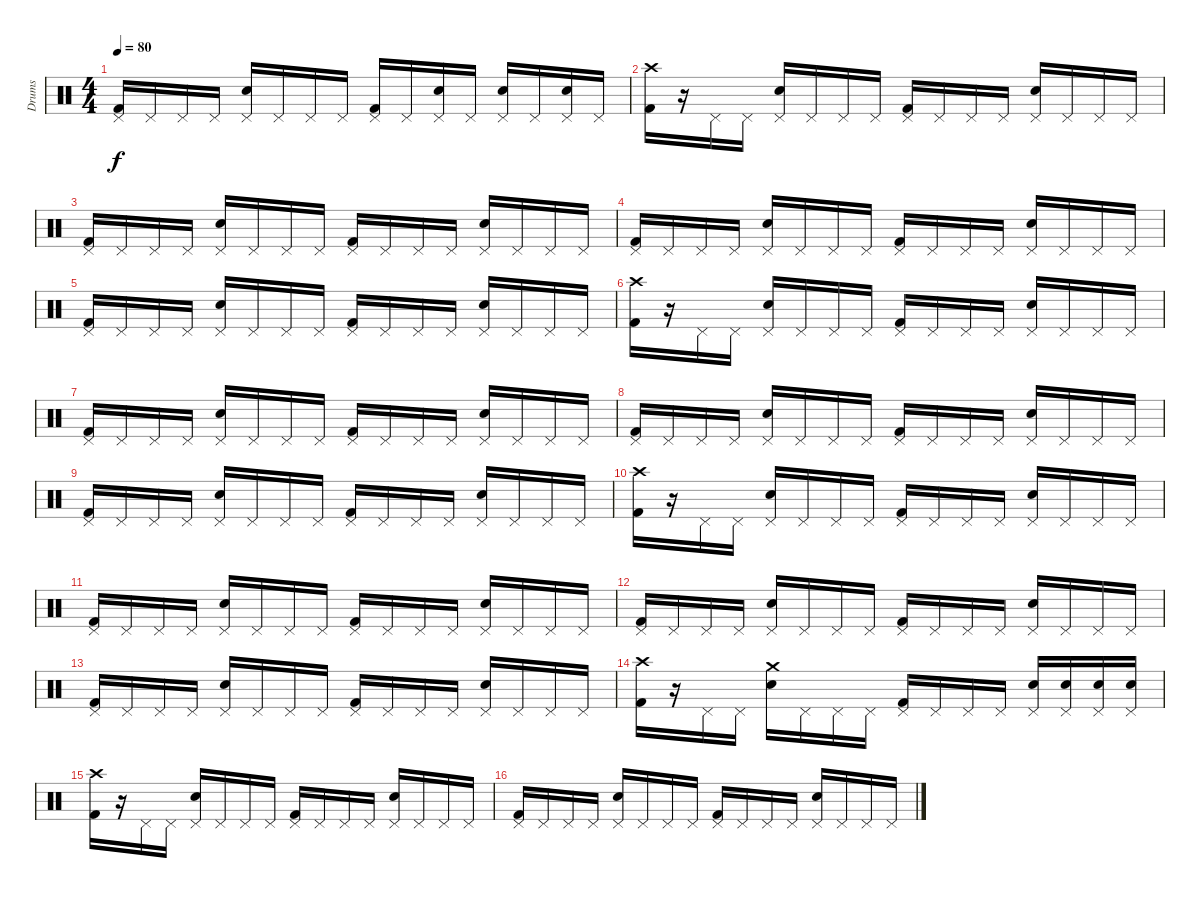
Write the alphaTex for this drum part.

\track ("Drums" "Drums") {instrument percussion}
\staff {score}
\articulation defaults
\ts (4 4)
\tempo 80
\clef neutral
\ks c
("Pedal Hi-Hat (hit)" "Kick (hit) 2").16{dy f} "Pedal Hi-Hat (hit)".16 "Pedal Hi-Hat (hit)".16 "Pedal Hi-Hat (hit)".16 ("Pedal Hi-Hat (hit)" "Snare (hit) 2").16 "Pedal Hi-Hat (hit)".16 "Pedal Hi-Hat (hit)".16 "Pedal Hi-Hat (hit)".16 ("Pedal Hi-Hat (hit)" "Kick (hit) 2").16 "Pedal Hi-Hat (hit)".16 ("Pedal Hi-Hat (hit)" "Snare (hit) 2").16 "Pedal Hi-Hat (hit)".16 ("Pedal Hi-Hat (hit)" "Snare (hit) 2").16 "Pedal Hi-Hat (hit)".16 ("Pedal Hi-Hat (hit)" "Snare (hit) 2").16 "Pedal Hi-Hat (hit)".16 |
("Crash high (hit)" "Kick (hit) 2").16 r.16 "Pedal Hi-Hat (hit)".16 "Pedal Hi-Hat (hit)".16 ("Pedal Hi-Hat (hit)" "Snare (hit) 2").16 "Pedal Hi-Hat (hit)".16 "Pedal Hi-Hat (hit)".16 "Pedal Hi-Hat (hit)".16 ("Pedal Hi-Hat (hit)" "Kick (hit) 2").16 "Pedal Hi-Hat (hit)".16 "Pedal Hi-Hat (hit)".16 "Pedal Hi-Hat (hit)".16 ("Pedal Hi-Hat (hit)" "Snare (hit) 2").16 "Pedal Hi-Hat (hit)".16 "Pedal Hi-Hat (hit)".16 "Pedal Hi-Hat (hit)".16 |
("Pedal Hi-Hat (hit)" "Kick (hit) 2").16 "Pedal Hi-Hat (hit)".16 "Pedal Hi-Hat (hit)".16 "Pedal Hi-Hat (hit)".16 ("Pedal Hi-Hat (hit)" "Snare (hit) 2").16 "Pedal Hi-Hat (hit)".16 "Pedal Hi-Hat (hit)".16 "Pedal Hi-Hat (hit)".16 ("Pedal Hi-Hat (hit)" "Kick (hit) 2").16 "Pedal Hi-Hat (hit)".16 "Pedal Hi-Hat (hit)".16 "Pedal Hi-Hat (hit)".16 ("Pedal Hi-Hat (hit)" "Snare (hit) 2").16 "Pedal Hi-Hat (hit)".16 "Pedal Hi-Hat (hit)".16 "Pedal Hi-Hat (hit)".16 |
("Pedal Hi-Hat (hit)" "Kick (hit) 2").16 "Pedal Hi-Hat (hit)".16 "Pedal Hi-Hat (hit)".16 "Pedal Hi-Hat (hit)".16 ("Pedal Hi-Hat (hit)" "Snare (hit) 2").16 "Pedal Hi-Hat (hit)".16 "Pedal Hi-Hat (hit)".16 "Pedal Hi-Hat (hit)".16 ("Pedal Hi-Hat (hit)" "Kick (hit) 2").16 "Pedal Hi-Hat (hit)".16 "Pedal Hi-Hat (hit)".16 "Pedal Hi-Hat (hit)".16 ("Pedal Hi-Hat (hit)" "Snare (hit) 2").16 "Pedal Hi-Hat (hit)".16 "Pedal Hi-Hat (hit)".16 "Pedal Hi-Hat (hit)".16 |
("Pedal Hi-Hat (hit)" "Kick (hit) 2").16 "Pedal Hi-Hat (hit)".16 "Pedal Hi-Hat (hit)".16 "Pedal Hi-Hat (hit)".16 ("Pedal Hi-Hat (hit)" "Snare (hit) 2").16 "Pedal Hi-Hat (hit)".16 "Pedal Hi-Hat (hit)".16 "Pedal Hi-Hat (hit)".16 ("Pedal Hi-Hat (hit)" "Kick (hit) 2").16 "Pedal Hi-Hat (hit)".16 "Pedal Hi-Hat (hit)".16 "Pedal Hi-Hat (hit)".16 ("Pedal Hi-Hat (hit)" "Snare (hit) 2").16 "Pedal Hi-Hat (hit)".16 "Pedal Hi-Hat (hit)".16 "Pedal Hi-Hat (hit)".16 |
("Crash high (hit)" "Kick (hit) 2").16 r.16 "Pedal Hi-Hat (hit)".16 "Pedal Hi-Hat (hit)".16 ("Pedal Hi-Hat (hit)" "Snare (hit) 2").16 "Pedal Hi-Hat (hit)".16 "Pedal Hi-Hat (hit)".16 "Pedal Hi-Hat (hit)".16 ("Pedal Hi-Hat (hit)" "Kick (hit) 2").16 "Pedal Hi-Hat (hit)".16 "Pedal Hi-Hat (hit)".16 "Pedal Hi-Hat (hit)".16 ("Pedal Hi-Hat (hit)" "Snare (hit) 2").16 "Pedal Hi-Hat (hit)".16 "Pedal Hi-Hat (hit)".16 "Pedal Hi-Hat (hit)".16 |
("Pedal Hi-Hat (hit)" "Kick (hit) 2").16 "Pedal Hi-Hat (hit)".16 "Pedal Hi-Hat (hit)".16 "Pedal Hi-Hat (hit)".16 ("Pedal Hi-Hat (hit)" "Snare (hit) 2").16 "Pedal Hi-Hat (hit)".16 "Pedal Hi-Hat (hit)".16 "Pedal Hi-Hat (hit)".16 ("Pedal Hi-Hat (hit)" "Kick (hit) 2").16 "Pedal Hi-Hat (hit)".16 "Pedal Hi-Hat (hit)".16 "Pedal Hi-Hat (hit)".16 ("Pedal Hi-Hat (hit)" "Snare (hit) 2").16 "Pedal Hi-Hat (hit)".16 "Pedal Hi-Hat (hit)".16 "Pedal Hi-Hat (hit)".16 |
("Pedal Hi-Hat (hit)" "Kick (hit) 2").16 "Pedal Hi-Hat (hit)".16 "Pedal Hi-Hat (hit)".16 "Pedal Hi-Hat (hit)".16 ("Pedal Hi-Hat (hit)" "Snare (hit) 2").16 "Pedal Hi-Hat (hit)".16 "Pedal Hi-Hat (hit)".16 "Pedal Hi-Hat (hit)".16 ("Pedal Hi-Hat (hit)" "Kick (hit) 2").16 "Pedal Hi-Hat (hit)".16 "Pedal Hi-Hat (hit)".16 "Pedal Hi-Hat (hit)".16 ("Pedal Hi-Hat (hit)" "Snare (hit) 2").16 "Pedal Hi-Hat (hit)".16 "Pedal Hi-Hat (hit)".16 "Pedal Hi-Hat (hit)".16 |
("Pedal Hi-Hat (hit)" "Kick (hit) 2").16 "Pedal Hi-Hat (hit)".16 "Pedal Hi-Hat (hit)".16 "Pedal Hi-Hat (hit)".16 ("Pedal Hi-Hat (hit)" "Snare (hit) 2").16 "Pedal Hi-Hat (hit)".16 "Pedal Hi-Hat (hit)".16 "Pedal Hi-Hat (hit)".16 ("Pedal Hi-Hat (hit)" "Kick (hit) 2").16 "Pedal Hi-Hat (hit)".16 "Pedal Hi-Hat (hit)".16 "Pedal Hi-Hat (hit)".16 ("Pedal Hi-Hat (hit)" "Snare (hit) 2").16 "Pedal Hi-Hat (hit)".16 "Pedal Hi-Hat (hit)".16 "Pedal Hi-Hat (hit)".16 |
("Crash high (hit)" "Kick (hit) 2").16 r.16 "Pedal Hi-Hat (hit)".16 "Pedal Hi-Hat (hit)".16 ("Pedal Hi-Hat (hit)" "Snare (hit) 2").16 "Pedal Hi-Hat (hit)".16 "Pedal Hi-Hat (hit)".16 "Pedal Hi-Hat (hit)".16 ("Pedal Hi-Hat (hit)" "Kick (hit) 2").16 "Pedal Hi-Hat (hit)".16 "Pedal Hi-Hat (hit)".16 "Pedal Hi-Hat (hit)".16 ("Pedal Hi-Hat (hit)" "Snare (hit) 2").16 "Pedal Hi-Hat (hit)".16 "Pedal Hi-Hat (hit)".16 "Pedal Hi-Hat (hit)".16 |
("Pedal Hi-Hat (hit)" "Kick (hit) 2").16 "Pedal Hi-Hat (hit)".16 "Pedal Hi-Hat (hit)".16 "Pedal Hi-Hat (hit)".16 ("Pedal Hi-Hat (hit)" "Snare (hit) 2").16 "Pedal Hi-Hat (hit)".16 "Pedal Hi-Hat (hit)".16 "Pedal Hi-Hat (hit)".16 ("Pedal Hi-Hat (hit)" "Kick (hit) 2").16 "Pedal Hi-Hat (hit)".16 "Pedal Hi-Hat (hit)".16 "Pedal Hi-Hat (hit)".16 ("Pedal Hi-Hat (hit)" "Snare (hit) 2").16 "Pedal Hi-Hat (hit)".16 "Pedal Hi-Hat (hit)".16 "Pedal Hi-Hat (hit)".16 |
("Pedal Hi-Hat (hit)" "Kick (hit) 2").16 "Pedal Hi-Hat (hit)".16 "Pedal Hi-Hat (hit)".16 "Pedal Hi-Hat (hit)".16 ("Pedal Hi-Hat (hit)" "Snare (hit) 2").16 "Pedal Hi-Hat (hit)".16 "Pedal Hi-Hat (hit)".16 "Pedal Hi-Hat (hit)".16 ("Pedal Hi-Hat (hit)" "Kick (hit) 2").16 "Pedal Hi-Hat (hit)".16 "Pedal Hi-Hat (hit)".16 "Pedal Hi-Hat (hit)".16 ("Pedal Hi-Hat (hit)" "Snare (hit) 2").16 "Pedal Hi-Hat (hit)".16 "Pedal Hi-Hat (hit)".16 "Pedal Hi-Hat (hit)".16 |
("Pedal Hi-Hat (hit)" "Kick (hit) 2").16 "Pedal Hi-Hat (hit)".16 "Pedal Hi-Hat (hit)".16 "Pedal Hi-Hat (hit)".16 ("Pedal Hi-Hat (hit)" "Snare (hit) 2").16 "Pedal Hi-Hat (hit)".16 "Pedal Hi-Hat (hit)".16 "Pedal Hi-Hat (hit)".16 ("Pedal Hi-Hat (hit)" "Kick (hit) 2").16 "Pedal Hi-Hat (hit)".16 "Pedal Hi-Hat (hit)".16 "Pedal Hi-Hat (hit)".16 ("Pedal Hi-Hat (hit)" "Snare (hit) 2").16 "Pedal Hi-Hat (hit)".16 "Pedal Hi-Hat (hit)".16 "Pedal Hi-Hat (hit)".16 |
("Crash high (hit)" "Kick (hit) 2").16 r.16 "Pedal Hi-Hat (hit)".16 "Pedal Hi-Hat (hit)".16 ("Crash medium (hit)" "Snare (hit) 2").16 "Pedal Hi-Hat (hit)".16 "Pedal Hi-Hat (hit)".16 "Pedal Hi-Hat (hit)".16 ("Pedal Hi-Hat (hit)" "Kick (hit) 2").16 "Pedal Hi-Hat (hit)".16 "Pedal Hi-Hat (hit)".16 "Pedal Hi-Hat (hit)".16 ("Pedal Hi-Hat (hit)" "Snare (hit) 2").16 ("Pedal Hi-Hat (hit)" "Snare (hit) 2").16 ("Pedal Hi-Hat (hit)" "Snare (hit) 2").16 ("Pedal Hi-Hat (hit)" "Snare (hit) 2").16 |
("Crash high (hit)" "Kick (hit) 2").16 r.16 "Pedal Hi-Hat (hit)".16 "Pedal Hi-Hat (hit)".16 ("Pedal Hi-Hat (hit)" "Snare (hit) 2").16 "Pedal Hi-Hat (hit)".16 "Pedal Hi-Hat (hit)".16 "Pedal Hi-Hat (hit)".16 ("Pedal Hi-Hat (hit)" "Kick (hit) 2").16 "Pedal Hi-Hat (hit)".16 "Pedal Hi-Hat (hit)".16 "Pedal Hi-Hat (hit)".16 ("Pedal Hi-Hat (hit)" "Snare (hit) 2").16 "Pedal Hi-Hat (hit)".16 "Pedal Hi-Hat (hit)".16 "Pedal Hi-Hat (hit)".16 |
("Pedal Hi-Hat (hit)" "Kick (hit) 2").16 "Pedal Hi-Hat (hit)".16 "Pedal Hi-Hat (hit)".16 "Pedal Hi-Hat (hit)".16 ("Pedal Hi-Hat (hit)" "Snare (hit) 2").16 "Pedal Hi-Hat (hit)".16 "Pedal Hi-Hat (hit)".16 "Pedal Hi-Hat (hit)".16 ("Pedal Hi-Hat (hit)" "Kick (hit) 2").16 "Pedal Hi-Hat (hit)".16 "Pedal Hi-Hat (hit)".16 "Pedal Hi-Hat (hit)".16 ("Pedal Hi-Hat (hit)" "Snare (hit) 2").16 "Pedal Hi-Hat (hit)".16 "Pedal Hi-Hat (hit)".16 "Pedal Hi-Hat (hit)".16
